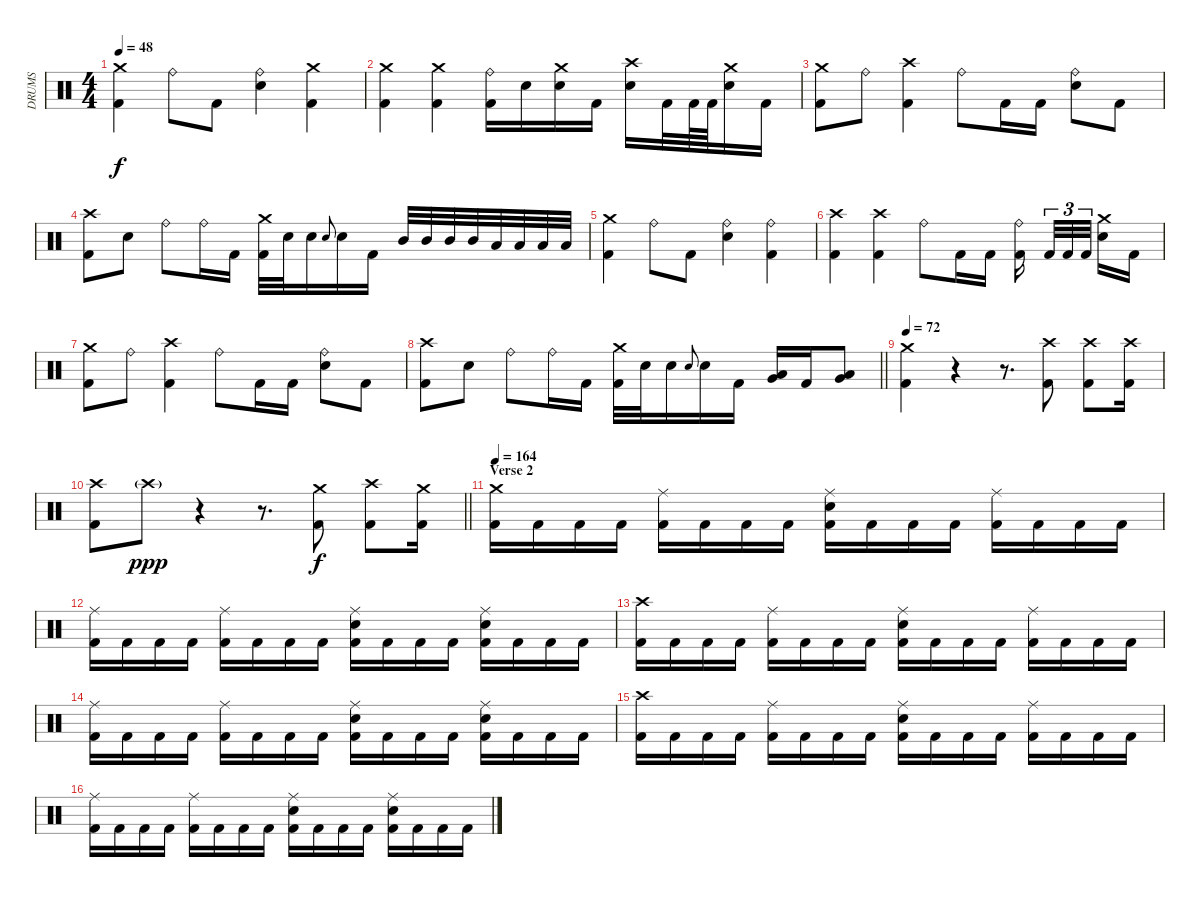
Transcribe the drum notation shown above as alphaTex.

\track ("DRUMS" "DRUMS") {instrument percussion}
\staff {score}
\articulation defaults
\ts (4 4)
\tempo 48
\clef neutral
\ks c
("Crash medium (hit)" "Kick (hit) 2").4{dy f} "Ride (bell)".8 "Kick (hit) 2".8 ("Ride (bell)" "Snare (hit) 2").4 ("Crash medium (hit)" "Kick (hit) 2").4 |
("Crash medium (hit)" "Kick (hit) 2").4 ("Crash medium (hit)" "Kick (hit) 2").4 ("Ride (bell)" "Kick (hit) 2").16 "Snare (hit) 2".16 ("Crash medium (hit)" "Snare (hit) 2").16 "Kick (hit) 2".16 ("Crash high (hit)" "Snare (hit) 2").16 "Kick (hit) 2".32 "Kick (hit) 2".64 "Kick (hit) 2".64 ("Crash medium (hit)" "Snare (hit) 2").16 "Kick (hit) 2".16 |
("Crash medium (hit)" "Kick (hit) 2").8 "Ride (bell)".8 ("Crash high (hit)" "Kick (hit) 2").4 "Ride (bell)".8 "Kick (hit) 2".16 "Kick (hit) 2".16 ("Ride (bell)" "Snare (hit) 2").8 "Kick (hit) 2".8 |
("Crash high (hit)" "Kick (hit) 2").8 "Snare (hit) 2".8 "Ride (bell)".8 "Ride (bell)".16 "Kick (hit) 2".16 ("Crash medium (hit)" "Kick (hit) 2").32 "Snare (hit) 2".32 "Snare (hit) 2".16 "Snare (hit) 2".8{gr onbeat} "Snare (hit) 2".16 "Kick (hit) 2".16 "Mid Tom (hit)".32 "Mid Tom (hit)".32 "Mid Tom (hit)".32 "Mid Tom (hit)".32 "Low Tom (hit)".32 "Low Tom (hit)".32 "Low Tom (hit)".32 "Low Tom (hit)".32 |
("Crash medium (hit)" "Kick (hit) 2").4 "Ride (bell)".8 "Kick (hit) 2".8 ("Ride (bell)" "Snare (hit) 2").4 ("Ride (bell)" "Kick (hit) 2").4 |
("Crash high (hit)" "Kick (hit) 2").4 ("Crash high (hit)" "Kick (hit) 2").4 "Ride (bell)".8 "Kick (hit) 2".16 "Kick (hit) 2".16 ("Ride (bell)" "Kick (hit) 2").16{beam splitsecondary} "Kick (hit) 2".32{tu (3 2)} "Kick (hit) 2".32{tu (3 2)} "Kick (hit) 2".32{tu (3 2) beam splitsecondary} ("Crash medium (hit)" "Snare (hit) 2").16 "Kick (hit) 2".16 |
("Crash medium (hit)" "Kick (hit) 2").8 "Ride (bell)".8 ("Crash high (hit)" "Kick (hit) 2").4 "Ride (bell)".8 "Kick (hit) 2".16 "Kick (hit) 2".16 ("Ride (bell)" "Snare (hit) 2").8 "Kick (hit) 2".8 |
\barLineRight lightlight
("Crash high (hit)" "Kick (hit) 2").8 "Snare (hit) 2".8 "Ride (bell)".8 "Ride (bell)".16 "Kick (hit) 2".16 ("Crash medium (hit)" "Kick (hit) 2").32 "Snare (hit) 2".32 "Snare (hit) 2".16 "Snare (hit) 2".8{gr onbeat} "Snare (hit) 2".16 "Kick (hit) 2".16 ("Low Tom (hit)" "Very Low Tom (hit)").16 "Kick (hit) 2".16 ("Very Low Tom (hit)" "Low Floor Tom (hit)").8 |
\tempo 72
("Crash medium (hit)" "Kick (hit) 2").4 r.4 r.8{d} ("Crash high (hit)" "Kick (hit) 2").8 ("Crash high (hit)" "Kick (hit) 2").8 ("Crash high (hit)" "Kick (hit) 2").16 |
\barLineRight lightlight
("Crash high (hit)" "Kick (hit) 2").8 "Crash high (hit)"{g}.8{dy ppp} r.4 r.8{d} ("Crash medium (hit)" "Kick (hit) 2").8{dy f} ("Crash high (hit)" "Kick (hit) 2").8 ("Crash medium (hit)" "Kick (hit) 2").16 |
\section ("" "Verse 2")
\tempo 164
("Crash medium (hit)" "Kick (hit) 2").16 "Kick (hit) 2".16 "Kick (hit) 2".16 "Kick (hit) 2".16 ("Ride (middle)" "Kick (hit) 2").16 "Kick (hit) 2".16 "Kick (hit) 2".16 "Kick (hit) 2".16 ("Ride (middle)" "Snare (hit) 2" "Kick (hit) 2").16 "Kick (hit) 2".16 "Kick (hit) 2".16 "Kick (hit) 2".16 ("Ride (middle)" "Kick (hit) 2").16 "Kick (hit) 2".16 "Kick (hit) 2".16 "Kick (hit) 2".16 |
("Ride (middle)" "Kick (hit) 2").16 "Kick (hit) 2".16 "Kick (hit) 2".16 "Kick (hit) 2".16 ("Ride (middle)" "Kick (hit) 2").16 "Kick (hit) 2".16 "Kick (hit) 2".16 "Kick (hit) 2".16 ("Ride (middle)" "Snare (hit) 2" "Kick (hit) 2").16 "Kick (hit) 2".16 "Kick (hit) 2".16 "Kick (hit) 2".16 ("Ride (middle)" "Snare (hit) 2" "Kick (hit) 2").16 "Kick (hit) 2".16 "Kick (hit) 2".16 "Kick (hit) 2".16 |
("Crash high (hit)" "Kick (hit) 2").16 "Kick (hit) 2".16 "Kick (hit) 2".16 "Kick (hit) 2".16 ("Ride (middle)" "Kick (hit) 2").16 "Kick (hit) 2".16 "Kick (hit) 2".16 "Kick (hit) 2".16 ("Ride (middle)" "Snare (hit) 2" "Kick (hit) 2").16 "Kick (hit) 2".16 "Kick (hit) 2".16 "Kick (hit) 2".16 ("Ride (middle)" "Kick (hit) 2").16 "Kick (hit) 2".16 "Kick (hit) 2".16 "Kick (hit) 2".16 |
("Ride (middle)" "Kick (hit) 2").16 "Kick (hit) 2".16 "Kick (hit) 2".16 "Kick (hit) 2".16 ("Ride (middle)" "Kick (hit) 2").16 "Kick (hit) 2".16 "Kick (hit) 2".16 "Kick (hit) 2".16 ("Ride (middle)" "Snare (hit) 2" "Kick (hit) 2").16 "Kick (hit) 2".16 "Kick (hit) 2".16 "Kick (hit) 2".16 ("Ride (middle)" "Snare (hit) 2" "Kick (hit) 2").16 "Kick (hit) 2".16 "Kick (hit) 2".16 "Kick (hit) 2".16 |
("Crash high (hit)" "Kick (hit) 2").16 "Kick (hit) 2".16 "Kick (hit) 2".16 "Kick (hit) 2".16 ("Ride (middle)" "Kick (hit) 2").16 "Kick (hit) 2".16 "Kick (hit) 2".16 "Kick (hit) 2".16 ("Ride (middle)" "Snare (hit) 2" "Kick (hit) 2").16 "Kick (hit) 2".16 "Kick (hit) 2".16 "Kick (hit) 2".16 ("Ride (middle)" "Kick (hit) 2").16 "Kick (hit) 2".16 "Kick (hit) 2".16 "Kick (hit) 2".16 |
("Ride (middle)" "Kick (hit) 2").16 "Kick (hit) 2".16 "Kick (hit) 2".16 "Kick (hit) 2".16 ("Ride (middle)" "Kick (hit) 2").16 "Kick (hit) 2".16 "Kick (hit) 2".16 "Kick (hit) 2".16 ("Ride (middle)" "Snare (hit) 2" "Kick (hit) 2").16 "Kick (hit) 2".16 "Kick (hit) 2".16 "Kick (hit) 2".16 ("Ride (middle)" "Snare (hit) 2" "Kick (hit) 2").16 "Kick (hit) 2".16 "Kick (hit) 2".16 "Kick (hit) 2".16
